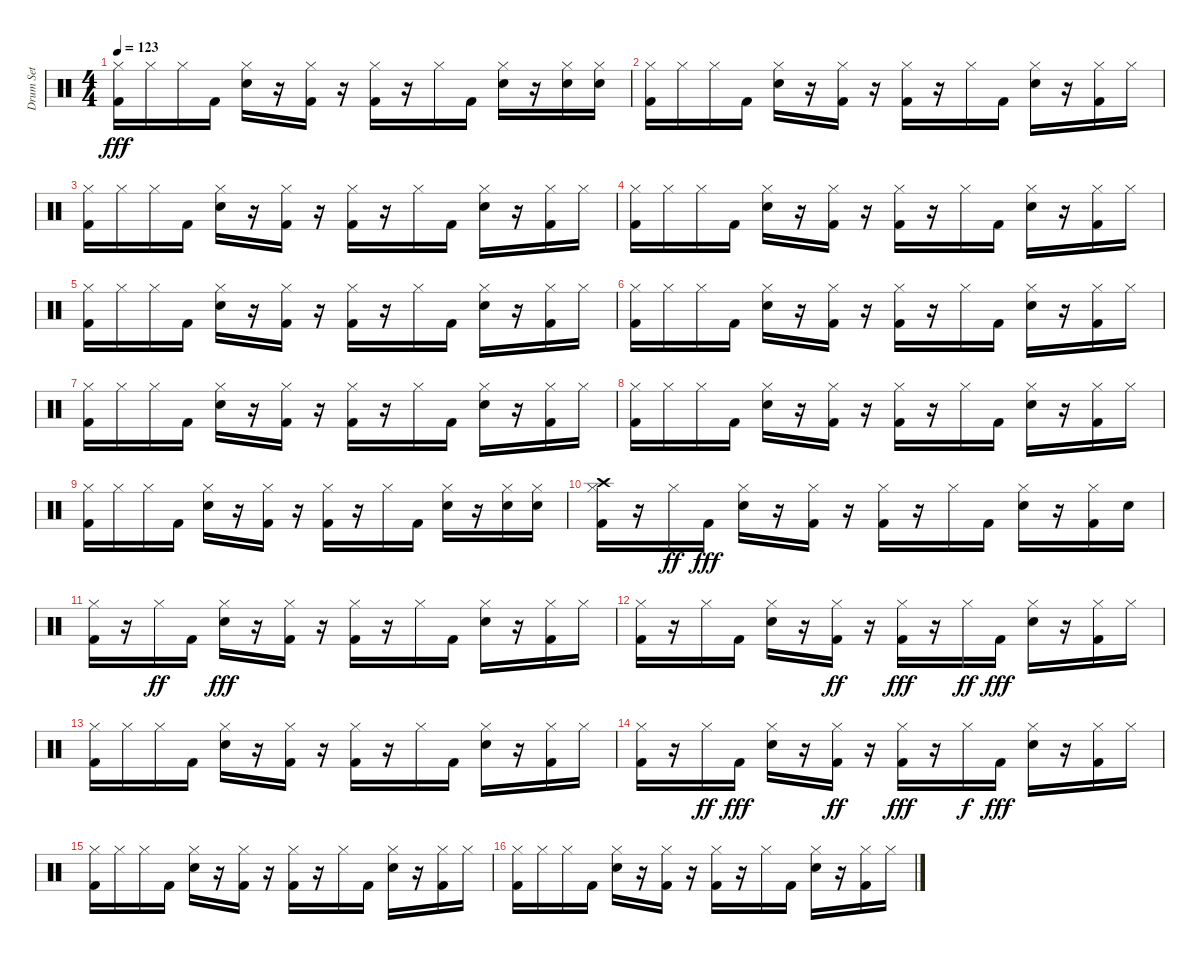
\track ("Drum Set" "Drum Set") {instrument percussion}
\staff {score}
\articulation defaults
\ts (4 4)
\tempo 123
\clef neutral
\ks c
("Hi-Hat (closed)" "Kick (hit) 2").16{dy fff} "Hi-Hat (closed)".16 "Hi-Hat (closed)".16 "Kick (hit) 2".16 ("Snare (hit) 2" "Hi-Hat (closed)").16 r.16 ("Kick (hit) 2" "Hi-Hat (closed)").16 r.16 ("Kick (hit) 2" "Hi-Hat (closed)").16 r.16 "Hi-Hat (closed)".16 "Kick (hit) 2".16 ("Snare (hit) 2" "Hi-Hat (closed)").16 r.16 ("Snare (hit) 2" "Hi-Hat (closed)").16 ("Snare (hit) 2" "Hi-Hat (closed)").16 |
("Kick (hit) 2" "Hi-Hat (closed)").16 "Hi-Hat (closed)".16 "Hi-Hat (closed)".16 "Kick (hit) 2".16 ("Snare (hit) 2" "Hi-Hat (closed)").16 r.16 ("Kick (hit) 2" "Hi-Hat (closed)").16 r.16 ("Kick (hit) 2" "Hi-Hat (closed)").16 r.16 "Hi-Hat (closed)".16 "Kick (hit) 2".16 ("Snare (hit) 2" "Hi-Hat (closed)").16 r.16 ("Kick (hit) 2" "Hi-Hat (closed)").16 "Hi-Hat (closed)".16 |
("Kick (hit) 2" "Hi-Hat (closed)").16 "Hi-Hat (closed)".16 "Hi-Hat (closed)".16 "Kick (hit) 2".16 ("Snare (hit) 2" "Hi-Hat (closed)").16 r.16 ("Kick (hit) 2" "Hi-Hat (closed)").16 r.16 ("Kick (hit) 2" "Hi-Hat (closed)").16 r.16 "Hi-Hat (closed)".16 "Kick (hit) 2".16 ("Snare (hit) 2" "Hi-Hat (closed)").16 r.16 ("Kick (hit) 2" "Hi-Hat (closed)").16 "Hi-Hat (closed)".16 |
("Hi-Hat (closed)" "Kick (hit) 2").16 "Hi-Hat (closed)".16 "Hi-Hat (closed)".16 "Kick (hit) 2".16 ("Snare (hit) 2" "Hi-Hat (closed)").16 r.16 ("Hi-Hat (closed)" "Kick (hit) 2").16 r.16 ("Kick (hit) 2" "Hi-Hat (closed)").16 r.16 "Hi-Hat (closed)".16 "Kick (hit) 2".16 ("Snare (hit) 2" "Hi-Hat (closed)").16 r.16 ("Hi-Hat (closed)" "Kick (hit) 2").16 "Hi-Hat (closed)".16 |
("Hi-Hat (closed)" "Kick (hit) 2").16 "Hi-Hat (closed)".16 "Hi-Hat (closed)".16 "Kick (hit) 2".16 ("Hi-Hat (closed)" "Snare (hit) 2").16 r.16 ("Kick (hit) 2" "Hi-Hat (closed)").16 r.16 ("Kick (hit) 2" "Hi-Hat (closed)").16 r.16 "Hi-Hat (closed)".16 "Kick (hit) 2".16 ("Snare (hit) 2" "Hi-Hat (closed)").16 r.16 ("Hi-Hat (closed)" "Kick (hit) 2").16 "Hi-Hat (closed)".16 |
("Hi-Hat (closed)" "Kick (hit) 2").16 "Hi-Hat (closed)".16 "Hi-Hat (closed)".16 "Kick (hit) 2".16 ("Snare (hit) 2" "Hi-Hat (closed)").16 r.16 ("Kick (hit) 2" "Hi-Hat (closed)").16 r.16 ("Kick (hit) 2" "Hi-Hat (closed)").16 r.16 "Hi-Hat (closed)".16 "Kick (hit) 2".16 ("Snare (hit) 2" "Hi-Hat (closed)").16 r.16 ("Kick (hit) 2" "Hi-Hat (closed)").16 "Hi-Hat (closed)".16 |
("Hi-Hat (closed)" "Kick (hit) 2").16 "Hi-Hat (closed)".16 "Hi-Hat (closed)".16 "Kick (hit) 2".16 ("Hi-Hat (closed)" "Snare (hit) 2").16 r.16 ("Hi-Hat (closed)" "Kick (hit) 2").16 r.16 ("Kick (hit) 2" "Hi-Hat (closed)").16 r.16 "Hi-Hat (closed)".16 "Kick (hit) 2".16 ("Snare (hit) 2" "Hi-Hat (closed)").16 r.16 ("Hi-Hat (closed)" "Kick (hit) 2").16 "Hi-Hat (closed)".16 |
("Hi-Hat (closed)" "Kick (hit) 2").16 "Hi-Hat (closed)".16 "Hi-Hat (closed)".16 "Kick (hit) 2".16 ("Snare (hit) 2" "Hi-Hat (closed)").16 r.16 ("Hi-Hat (closed)" "Kick (hit) 2").16 r.16 ("Kick (hit) 2" "Hi-Hat (closed)").16 r.16 "Hi-Hat (closed)".16 "Kick (hit) 2".16 ("Snare (hit) 2" "Hi-Hat (closed)").16 r.16 ("Hi-Hat (closed)" "Kick (hit) 2").16 "Hi-Hat (closed)".16 |
("Hi-Hat (closed)" "Kick (hit) 2").16 "Hi-Hat (closed)".16 "Hi-Hat (closed)".16 "Kick (hit) 2".16 ("Snare (hit) 2" "Hi-Hat (closed)").16 r.16 ("Kick (hit) 2" "Hi-Hat (closed)").16 r.16 ("Hi-Hat (closed)" "Kick (hit) 2").16 r.16 "Hi-Hat (closed)".16 "Kick (hit) 2".16 ("Hi-Hat (closed)" "Snare (hit) 2").16 r.16 ("Hi-Hat (closed)" "Snare (hit) 2").16 ("Hi-Hat (closed)" "Snare (hit) 2").16 |
("Crash high (hit)" "Kick (hit) 2" "Hi-Hat (closed)").16 r.16 "Hi-Hat (closed)".16{dy ff} "Kick (hit) 2".16{dy fff} ("Snare (hit) 2" "Hi-Hat (closed)").16 r.16 ("Kick (hit) 2" "Hi-Hat (closed)").16 r.16 ("Kick (hit) 2" "Hi-Hat (closed)").16 r.16 "Hi-Hat (closed)".16 "Kick (hit) 2".16 ("Snare (hit) 2" "Hi-Hat (closed)").16 r.16 ("Kick (hit) 2" "Hi-Hat (closed)").16 "Snare (hit) 2".16 |
("Kick (hit) 2" "Hi-Hat (closed)").16 r.16 "Hi-Hat (closed)".16{dy ff} "Kick (hit) 2".16 ("Snare (hit) 2" "Hi-Hat (closed)").16{dy fff} r.16 ("Kick (hit) 2" "Hi-Hat (closed)").16 r.16 ("Kick (hit) 2" "Hi-Hat (closed)").16 r.16 "Hi-Hat (closed)".16 "Kick (hit) 2".16 ("Snare (hit) 2" "Hi-Hat (closed)").16 r.16 ("Kick (hit) 2" "Hi-Hat (closed)").16 "Hi-Hat (closed)".16 |
("Hi-Hat (closed)" "Kick (hit) 2").16 r.16 "Hi-Hat (closed)".16 "Kick (hit) 2".16 ("Snare (hit) 2" "Hi-Hat (closed)").16 r.16 ("Kick (hit) 2" "Hi-Hat (closed)").16{dy ff} r.16 ("Kick (hit) 2" "Hi-Hat (closed)").16{dy fff} r.16 "Hi-Hat (closed)".16{dy ff} "Kick (hit) 2".16{dy fff} ("Hi-Hat (closed)" "Snare (hit) 2").16 r.16 ("Kick (hit) 2" "Hi-Hat (closed)").16 "Hi-Hat (closed)".16 |
("Hi-Hat (closed)" "Kick (hit) 2").16 "Hi-Hat (closed)".16 "Hi-Hat (closed)".16 "Kick (hit) 2".16 ("Hi-Hat (closed)" "Snare (hit) 2").16 r.16 ("Hi-Hat (closed)" "Kick (hit) 2").16 r.16 ("Kick (hit) 2" "Hi-Hat (closed)").16 r.16 "Hi-Hat (closed)".16 "Kick (hit) 2".16 ("Hi-Hat (closed)" "Snare (hit) 2").16 r.16 ("Hi-Hat (closed)" "Kick (hit) 2").16 "Hi-Hat (closed)".16 |
("Kick (hit) 2" "Hi-Hat (closed)").16 r.16 "Hi-Hat (closed)".16{dy ff} "Kick (hit) 2".16{dy fff} ("Snare (hit) 2" "Hi-Hat (closed)").16 r.16 ("Kick (hit) 2" "Hi-Hat (closed)").16{dy ff} r.16 ("Kick (hit) 2" "Hi-Hat (closed)").16{dy fff} r.16 "Hi-Hat (closed)".16{dy f} "Kick (hit) 2".16{dy fff} ("Hi-Hat (closed)" "Snare (hit) 2").16 r.16 ("Hi-Hat (closed)" "Kick (hit) 2").16 "Hi-Hat (closed)".16 |
("Kick (hit) 2" "Hi-Hat (closed)").16 "Hi-Hat (closed)".16 "Hi-Hat (closed)".16 "Kick (hit) 2".16 ("Snare (hit) 2" "Hi-Hat (closed)").16 r.16 ("Kick (hit) 2" "Hi-Hat (closed)").16 r.16 ("Kick (hit) 2" "Hi-Hat (closed)").16 r.16 "Hi-Hat (closed)".16 "Kick (hit) 2".16 ("Snare (hit) 2" "Hi-Hat (closed)").16 r.16 ("Kick (hit) 2" "Hi-Hat (closed)").16 "Hi-Hat (closed)".16 |
("Hi-Hat (closed)" "Kick (hit) 2").16 "Hi-Hat (closed)".16 "Hi-Hat (closed)".16 "Kick (hit) 2".16 ("Snare (hit) 2" "Hi-Hat (closed)").16 r.16 ("Kick (hit) 2" "Hi-Hat (closed)").16 r.16 ("Kick (hit) 2" "Hi-Hat (closed)").16 r.16 "Hi-Hat (closed)".16 "Kick (hit) 2".16 ("Snare (hit) 2" "Hi-Hat (closed)").16 r.16 ("Kick (hit) 2" "Hi-Hat (closed)").16 "Hi-Hat (closed)".16
